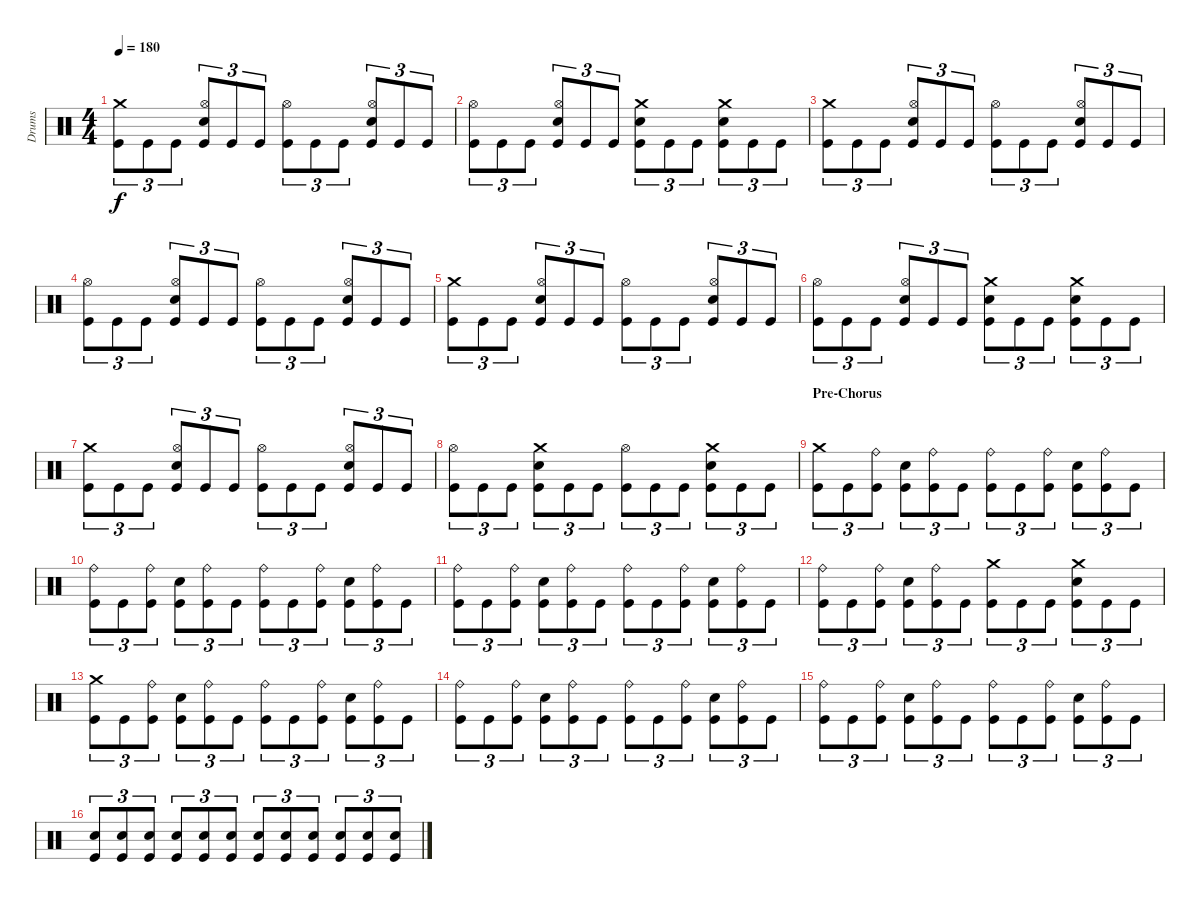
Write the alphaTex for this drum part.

\track ("Drums" "Drums") {instrument percussion}
\staff {score}
\articulation defaults
\ts (4 4)
\tempo 180
\clef neutral
\ks c
("Crash medium (hit)" "Kick (hit)").8{tu (3 2) dy f} "Kick (hit)".8{tu (3 2)} "Kick (hit)".8{tu (3 2)} ("Hi-Hat (open)" "Electric Snare (hit)" "Kick (hit)").8{tu (3 2)} "Kick (hit)".8{tu (3 2)} "Kick (hit)".8{tu (3 2)} ("Hi-Hat (open)" "Kick (hit)").8{tu (3 2)} "Kick (hit)".8{tu (3 2)} "Kick (hit)".8{tu (3 2)} ("Hi-Hat (open)" "Electric Snare (hit)" "Kick (hit)").8{tu (3 2)} "Kick (hit)".8{tu (3 2)} "Kick (hit)".8{tu (3 2)} |
("Hi-Hat (open)" "Kick (hit)").8{tu (3 2)} "Kick (hit)".8{tu (3 2)} "Kick (hit)".8{tu (3 2)} ("Hi-Hat (open)" "Electric Snare (hit)" "Kick (hit)").8{tu (3 2)} "Kick (hit)".8{tu (3 2)} "Kick (hit)".8{tu (3 2)} ("Crash medium (hit)" "Electric Snare (hit)" "Kick (hit)").8{tu (3 2)} "Kick (hit)".8{tu (3 2)} "Kick (hit)".8{tu (3 2)} ("Crash medium (hit)" "Electric Snare (hit)" "Kick (hit)").8{tu (3 2)} "Kick (hit)".8{tu (3 2)} "Kick (hit)".8{tu (3 2)} |
("Crash medium (hit)" "Kick (hit)").8{tu (3 2)} "Kick (hit)".8{tu (3 2)} "Kick (hit)".8{tu (3 2)} ("Hi-Hat (open)" "Electric Snare (hit)" "Kick (hit)").8{tu (3 2)} "Kick (hit)".8{tu (3 2)} "Kick (hit)".8{tu (3 2)} ("Hi-Hat (open)" "Kick (hit)").8{tu (3 2)} "Kick (hit)".8{tu (3 2)} "Kick (hit)".8{tu (3 2)} ("Hi-Hat (open)" "Electric Snare (hit)" "Kick (hit)").8{tu (3 2)} "Kick (hit)".8{tu (3 2)} "Kick (hit)".8{tu (3 2)} |
("Hi-Hat (open)" "Kick (hit)").8{tu (3 2)} "Kick (hit)".8{tu (3 2)} "Kick (hit)".8{tu (3 2)} ("Hi-Hat (open)" "Electric Snare (hit)" "Kick (hit)").8{tu (3 2)} "Kick (hit)".8{tu (3 2)} "Kick (hit)".8{tu (3 2)} ("Hi-Hat (open)" "Kick (hit)").8{tu (3 2)} "Kick (hit)".8{tu (3 2)} "Kick (hit)".8{tu (3 2)} ("Hi-Hat (open)" "Electric Snare (hit)" "Kick (hit)").8{tu (3 2)} "Kick (hit)".8{tu (3 2)} "Kick (hit)".8{tu (3 2)} |
("Crash medium (hit)" "Kick (hit)").8{tu (3 2)} "Kick (hit)".8{tu (3 2)} "Kick (hit)".8{tu (3 2)} ("Hi-Hat (open)" "Electric Snare (hit)" "Kick (hit)").8{tu (3 2)} "Kick (hit)".8{tu (3 2)} "Kick (hit)".8{tu (3 2)} ("Hi-Hat (open)" "Kick (hit)").8{tu (3 2)} "Kick (hit)".8{tu (3 2)} "Kick (hit)".8{tu (3 2)} ("Hi-Hat (open)" "Electric Snare (hit)" "Kick (hit)").8{tu (3 2)} "Kick (hit)".8{tu (3 2)} "Kick (hit)".8{tu (3 2)} |
("Hi-Hat (open)" "Kick (hit)").8{tu (3 2)} "Kick (hit)".8{tu (3 2)} "Kick (hit)".8{tu (3 2)} ("Hi-Hat (open)" "Electric Snare (hit)" "Kick (hit)").8{tu (3 2)} "Kick (hit)".8{tu (3 2)} "Kick (hit)".8{tu (3 2)} ("Crash medium (hit)" "Electric Snare (hit)" "Kick (hit)").8{tu (3 2)} "Kick (hit)".8{tu (3 2)} "Kick (hit)".8{tu (3 2)} ("Crash medium (hit)" "Electric Snare (hit)" "Kick (hit)").8{tu (3 2)} "Kick (hit)".8{tu (3 2)} "Kick (hit)".8{tu (3 2)} |
("Crash medium (hit)" "Kick (hit)").8{tu (3 2)} "Kick (hit)".8{tu (3 2)} "Kick (hit)".8{tu (3 2)} ("Hi-Hat (open)" "Electric Snare (hit)" "Kick (hit)").8{tu (3 2)} "Kick (hit)".8{tu (3 2)} "Kick (hit)".8{tu (3 2)} ("Hi-Hat (open)" "Kick (hit)").8{tu (3 2)} "Kick (hit)".8{tu (3 2)} "Kick (hit)".8{tu (3 2)} ("Hi-Hat (open)" "Electric Snare (hit)" "Kick (hit)").8{tu (3 2)} "Kick (hit)".8{tu (3 2)} "Kick (hit)".8{tu (3 2)} |
("Hi-Hat (open)" "Kick (hit)").8{tu (3 2)} "Kick (hit)".8{tu (3 2)} "Kick (hit)".8{tu (3 2)} ("Crash medium (hit)" "Electric Snare (hit)" "Kick (hit)").8{tu (3 2)} "Kick (hit)".8{tu (3 2)} "Kick (hit)".8{tu (3 2)} ("Hi-Hat (open)" "Kick (hit)").8{tu (3 2)} "Kick (hit)".8{tu (3 2)} "Kick (hit)".8{tu (3 2)} ("Crash medium (hit)" "Electric Snare (hit)" "Kick (hit)").8{tu (3 2)} "Kick (hit)".8{tu (3 2)} "Kick (hit)".8{tu (3 2)} |
\section ("" "Pre-Chorus")
("Crash medium (hit)" "Kick (hit)").8{tu (3 2)} "Kick (hit)".8{tu (3 2)} ("Ride (bell)" "Kick (hit)").8{tu (3 2)} ("Electric Snare (hit)" "Kick (hit)").8{tu (3 2)} ("Ride (bell)" "Kick (hit)").8{tu (3 2)} "Kick (hit)".8{tu (3 2)} ("Ride (bell)" "Kick (hit)").8{tu (3 2)} "Kick (hit)".8{tu (3 2)} ("Ride (bell)" "Kick (hit)").8{tu (3 2)} ("Electric Snare (hit)" "Kick (hit)").8{tu (3 2)} ("Ride (bell)" "Kick (hit)").8{tu (3 2)} "Kick (hit)".8{tu (3 2)} |
("Ride (bell)" "Kick (hit)").8{tu (3 2)} "Kick (hit)".8{tu (3 2)} ("Ride (bell)" "Kick (hit)").8{tu (3 2)} ("Electric Snare (hit)" "Kick (hit)").8{tu (3 2)} ("Ride (bell)" "Kick (hit)").8{tu (3 2)} "Kick (hit)".8{tu (3 2)} ("Ride (bell)" "Kick (hit)").8{tu (3 2)} "Kick (hit)".8{tu (3 2)} ("Ride (bell)" "Kick (hit)").8{tu (3 2)} ("Electric Snare (hit)" "Kick (hit)").8{tu (3 2)} ("Ride (bell)" "Kick (hit)").8{tu (3 2)} "Kick (hit)".8{tu (3 2)} |
("Ride (bell)" "Kick (hit)").8{tu (3 2)} "Kick (hit)".8{tu (3 2)} ("Ride (bell)" "Kick (hit)").8{tu (3 2)} ("Electric Snare (hit)" "Kick (hit)").8{tu (3 2)} ("Ride (bell)" "Kick (hit)").8{tu (3 2)} "Kick (hit)".8{tu (3 2)} ("Ride (bell)" "Kick (hit)").8{tu (3 2)} "Kick (hit)".8{tu (3 2)} ("Ride (bell)" "Kick (hit)").8{tu (3 2)} ("Electric Snare (hit)" "Kick (hit)").8{tu (3 2)} ("Ride (bell)" "Kick (hit)").8{tu (3 2)} "Kick (hit)".8{tu (3 2)} |
("Ride (bell)" "Kick (hit)").8{tu (3 2)} "Kick (hit)".8{tu (3 2)} ("Ride (bell)" "Kick (hit)").8{tu (3 2)} ("Electric Snare (hit)" "Kick (hit)").8{tu (3 2)} ("Ride (bell)" "Kick (hit)").8{tu (3 2)} "Kick (hit)".8{tu (3 2)} ("Crash medium (hit)" "Kick (hit)").8{tu (3 2)} "Kick (hit)".8{tu (3 2)} "Kick (hit)".8{tu (3 2)} ("Crash medium (hit)" "Electric Snare (hit)" "Kick (hit)").8{tu (3 2)} "Kick (hit)".8{tu (3 2)} "Kick (hit)".8{tu (3 2)} |
("Crash medium (hit)" "Kick (hit)").8{tu (3 2)} "Kick (hit)".8{tu (3 2)} ("Ride (bell)" "Kick (hit)").8{tu (3 2)} ("Electric Snare (hit)" "Kick (hit)").8{tu (3 2)} ("Ride (bell)" "Kick (hit)").8{tu (3 2)} "Kick (hit)".8{tu (3 2)} ("Ride (bell)" "Kick (hit)").8{tu (3 2)} "Kick (hit)".8{tu (3 2)} ("Ride (bell)" "Kick (hit)").8{tu (3 2)} ("Electric Snare (hit)" "Kick (hit)").8{tu (3 2)} ("Ride (bell)" "Kick (hit)").8{tu (3 2)} "Kick (hit)".8{tu (3 2)} |
("Ride (bell)" "Kick (hit)").8{tu (3 2)} "Kick (hit)".8{tu (3 2)} ("Ride (bell)" "Kick (hit)").8{tu (3 2)} ("Electric Snare (hit)" "Kick (hit)").8{tu (3 2)} ("Ride (bell)" "Kick (hit)").8{tu (3 2)} "Kick (hit)".8{tu (3 2)} ("Ride (bell)" "Kick (hit)").8{tu (3 2)} "Kick (hit)".8{tu (3 2)} ("Ride (bell)" "Kick (hit)").8{tu (3 2)} ("Electric Snare (hit)" "Kick (hit)").8{tu (3 2)} ("Ride (bell)" "Kick (hit)").8{tu (3 2)} "Kick (hit)".8{tu (3 2)} |
("Ride (bell)" "Kick (hit)").8{tu (3 2)} "Kick (hit)".8{tu (3 2)} ("Ride (bell)" "Kick (hit)").8{tu (3 2)} ("Electric Snare (hit)" "Kick (hit)").8{tu (3 2)} ("Ride (bell)" "Kick (hit)").8{tu (3 2)} "Kick (hit)".8{tu (3 2)} ("Ride (bell)" "Kick (hit)").8{tu (3 2)} "Kick (hit)".8{tu (3 2)} ("Ride (bell)" "Kick (hit)").8{tu (3 2)} ("Electric Snare (hit)" "Kick (hit)").8{tu (3 2)} ("Ride (bell)" "Kick (hit)").8{tu (3 2)} "Kick (hit)".8{tu (3 2)} |
("Electric Snare (hit)" "Kick (hit)").8{tu (3 2)} ("Electric Snare (hit)" "Kick (hit)").8{tu (3 2)} ("Electric Snare (hit)" "Kick (hit)").8{tu (3 2)} ("Electric Snare (hit)" "Kick (hit)").8{tu (3 2)} ("Electric Snare (hit)" "Kick (hit)").8{tu (3 2)} ("Electric Snare (hit)" "Kick (hit)").8{tu (3 2)} ("Electric Snare (hit)" "Kick (hit)").8{tu (3 2)} ("Electric Snare (hit)" "Kick (hit)").8{tu (3 2)} ("Electric Snare (hit)" "Kick (hit)").8{tu (3 2)} ("Electric Snare (hit)" "Kick (hit)").8{tu (3 2)} ("Electric Snare (hit)" "Kick (hit)").8{tu (3 2)} ("Electric Snare (hit)" "Kick (hit)").8{tu (3 2)}
